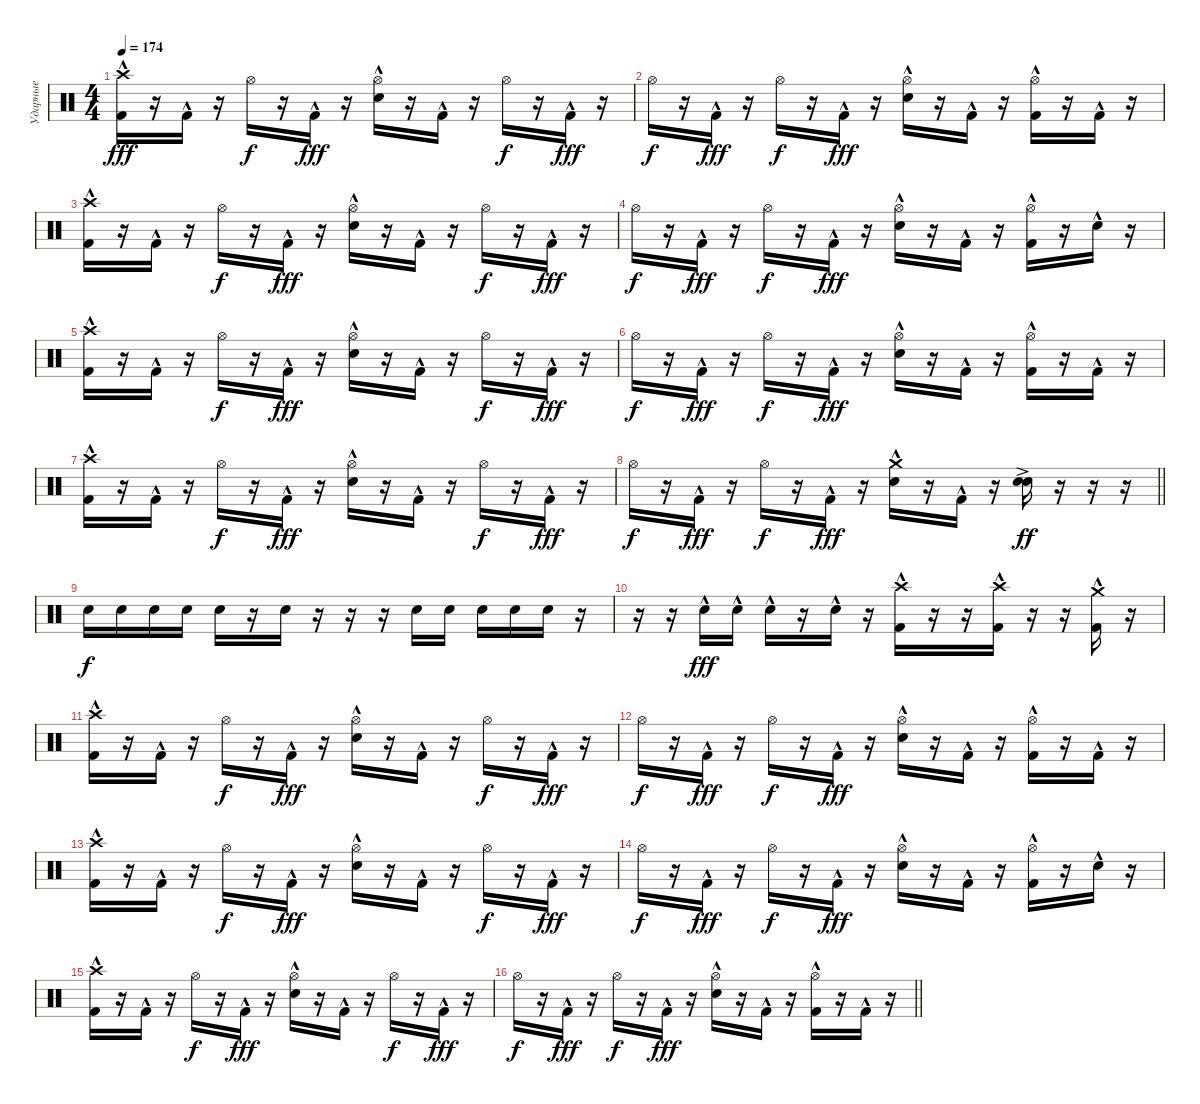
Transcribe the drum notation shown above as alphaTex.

\track ("Ударные" "Ударные") {instrument percussion}
\staff {score}
\articulation defaults
\ts (4 4)
\section ("" "")
\tempo 174
\clef neutral
\ks c
("Crash high (hit)" "Kick (hit) 2"{hac}).16{dy fff} r.16 "Kick (hit) 2"{hac}.16 r.16 "Hi-Hat (open)".16{dy f} r.16 "Kick (hit) 2"{hac}.16{dy fff} r.16 ("Hi-Hat (open)" "Snare (hit) 2"{hac}).16 r.16 "Kick (hit) 2"{hac}.16 r.16 "Hi-Hat (open)".16{dy f} r.16 "Kick (hit) 2"{hac}.16{dy fff} r.16 |
"Hi-Hat (open)".16{dy f} r.16 "Kick (hit) 2"{hac}.16{dy fff} r.16 "Hi-Hat (open)".16{dy f} r.16 "Kick (hit) 2"{hac}.16{dy fff} r.16 ("Hi-Hat (open)" "Snare (hit) 2"{hac}).16 r.16 "Kick (hit) 2"{hac}.16 r.16 ("Hi-Hat (open)" "Kick (hit) 2"{hac}).16 r.16 "Kick (hit) 2"{hac}.16 r.16 |
("Crash high (hit)" "Kick (hit) 2"{hac}).16 r.16 "Kick (hit) 2"{hac}.16 r.16 "Hi-Hat (open)".16{dy f} r.16 "Kick (hit) 2"{hac}.16{dy fff} r.16 ("Hi-Hat (open)" "Snare (hit) 2"{hac}).16 r.16 "Kick (hit) 2"{hac}.16 r.16 "Hi-Hat (open)".16{dy f} r.16 "Kick (hit) 2"{hac}.16{dy fff} r.16 |
"Hi-Hat (open)".16{dy f} r.16 "Kick (hit) 2"{hac}.16{dy fff} r.16 "Hi-Hat (open)".16{dy f} r.16 "Kick (hit) 2"{hac}.16{dy fff} r.16 ("Hi-Hat (open)" "Snare (hit) 2"{hac}).16 r.16 "Kick (hit) 2"{hac}.16 r.16 ("Hi-Hat (open)" "Kick (hit) 2"{hac}).16 r.16 "Snare (hit) 2"{hac}.16 r.16 |
("Crash high (hit)" "Kick (hit) 2"{hac}).16 r.16 "Kick (hit) 2"{hac}.16 r.16 "Hi-Hat (open)".16{dy f} r.16 "Kick (hit) 2"{hac}.16{dy fff} r.16 ("Hi-Hat (open)" "Snare (hit) 2"{hac}).16 r.16 "Kick (hit) 2"{hac}.16 r.16 "Hi-Hat (open)".16{dy f} r.16 "Kick (hit) 2"{hac}.16{dy fff} r.16 |
"Hi-Hat (open)".16{dy f} r.16 "Kick (hit) 2"{hac}.16{dy fff} r.16 "Hi-Hat (open)".16{dy f} r.16 "Kick (hit) 2"{hac}.16{dy fff} r.16 ("Hi-Hat (open)" "Snare (hit) 2"{hac}).16 r.16 "Kick (hit) 2"{hac}.16 r.16 ("Hi-Hat (open)" "Kick (hit) 2"{hac}).16 r.16 "Kick (hit) 2"{hac}.16 r.16 |
("Crash high (hit)" "Kick (hit) 2"{hac}).16 r.16 "Kick (hit) 2"{hac}.16 r.16 "Hi-Hat (open)".16{dy f} r.16 "Kick (hit) 2"{hac}.16{dy fff} r.16 ("Hi-Hat (open)" "Snare (hit) 2"{hac}).16 r.16 "Kick (hit) 2"{hac}.16 r.16 "Hi-Hat (open)".16{dy f} r.16 "Kick (hit) 2"{hac}.16{dy fff} r.16 |
\barLineRight lightlight "Hi-Hat (open)".16{dy f}
r.16 "Kick (hit) 2"{hac}.16{dy fff} r.16 "Hi-Hat (open)".16{dy f} r.16 "Kick (hit) 2"{hac}.16{dy fff} r.16 ("Crash medium (hit)" "Snare (hit) 2"{hac}).16 r.16 "Kick (hit) 2"{hac}.16 r.16 ("Snare (hit) 2" "Snare (hit) 2"{ac}).16{dy ff} r.16 r.16 r.16 |
"Snare (hit) 2".16{dy f} "Snare (hit) 2".16 "Snare (hit) 2".16 "Snare (hit) 2".16 "Snare (hit) 2".16 r.16 "Snare (hit) 2".16 r.16 r.16 r.16 "Snare (hit) 2".16 "Snare (hit) 2".16 "Snare (hit) 2".16 "Snare (hit) 2".16 "Snare (hit) 2".16 r.16 |
r.16 r.16 "Snare (hit) 2"{hac}.16{dy fff} "Snare (hit) 2"{hac}.16 "Snare (hit) 2"{hac}.16 r.16 "Snare (hit) 2"{hac}.16 r.16 ("Kick (hit) 2"{hac} "Crash high (hit)").16 r.16 r.16 ("Kick (hit) 2"{hac} "Crash high (hit)").16 r.16 r.16 ("Kick (hit) 2"{hac} "Crash medium (hit)").16 r.16 |
("Crash high (hit)" "Kick (hit) 2"{hac}).16 r.16 "Kick (hit) 2"{hac}.16 r.16 "Hi-Hat (open)".16{dy f} r.16 "Kick (hit) 2"{hac}.16{dy fff} r.16 ("Hi-Hat (open)" "Snare (hit) 2"{hac}).16 r.16 "Kick (hit) 2"{hac}.16 r.16 "Hi-Hat (open)".16{dy f} r.16 "Kick (hit) 2"{hac}.16{dy fff} r.16 |
"Hi-Hat (open)".16{dy f} r.16 "Kick (hit) 2"{hac}.16{dy fff} r.16 "Hi-Hat (open)".16{dy f} r.16 "Kick (hit) 2"{hac}.16{dy fff} r.16 ("Hi-Hat (open)" "Snare (hit) 2"{hac}).16 r.16 "Kick (hit) 2"{hac}.16 r.16 ("Hi-Hat (open)" "Kick (hit) 2"{hac}).16 r.16 "Kick (hit) 2"{hac}.16 r.16 |
("Crash high (hit)" "Kick (hit) 2"{hac}).16 r.16 "Kick (hit) 2"{hac}.16 r.16 "Hi-Hat (open)".16{dy f} r.16 "Kick (hit) 2"{hac}.16{dy fff} r.16 ("Hi-Hat (open)" "Snare (hit) 2"{hac}).16 r.16 "Kick (hit) 2"{hac}.16 r.16 "Hi-Hat (open)".16{dy f} r.16 "Kick (hit) 2"{hac}.16{dy fff} r.16 |
"Hi-Hat (open)".16{dy f} r.16 "Kick (hit) 2"{hac}.16{dy fff} r.16 "Hi-Hat (open)".16{dy f} r.16 "Kick (hit) 2"{hac}.16{dy fff} r.16 ("Hi-Hat (open)" "Snare (hit) 2"{hac}).16 r.16 "Kick (hit) 2"{hac}.16 r.16 ("Hi-Hat (open)" "Kick (hit) 2"{hac}).16 r.16 "Snare (hit) 2"{hac}.16 r.16 |
("Crash high (hit)" "Kick (hit) 2"{hac}).16 r.16 "Kick (hit) 2"{hac}.16 r.16 "Hi-Hat (open)".16{dy f} r.16 "Kick (hit) 2"{hac}.16{dy fff} r.16 ("Hi-Hat (open)" "Snare (hit) 2"{hac}).16 r.16 "Kick (hit) 2"{hac}.16 r.16 "Hi-Hat (open)".16{dy f} r.16 "Kick (hit) 2"{hac}.16{dy fff} r.16 |
\barLineRight lightlight "Hi-Hat (open)".16{dy f}
r.16 "Kick (hit) 2"{hac}.16{dy fff} r.16 "Hi-Hat (open)".16{dy f} r.16 "Kick (hit) 2"{hac}.16{dy fff} r.16 ("Hi-Hat (open)" "Snare (hit) 2"{hac}).16 r.16 "Kick (hit) 2"{hac}.16 r.16 ("Hi-Hat (open)" "Kick (hit) 2"{hac}).16 r.16 "Kick (hit) 2"{hac}.16 r.16
